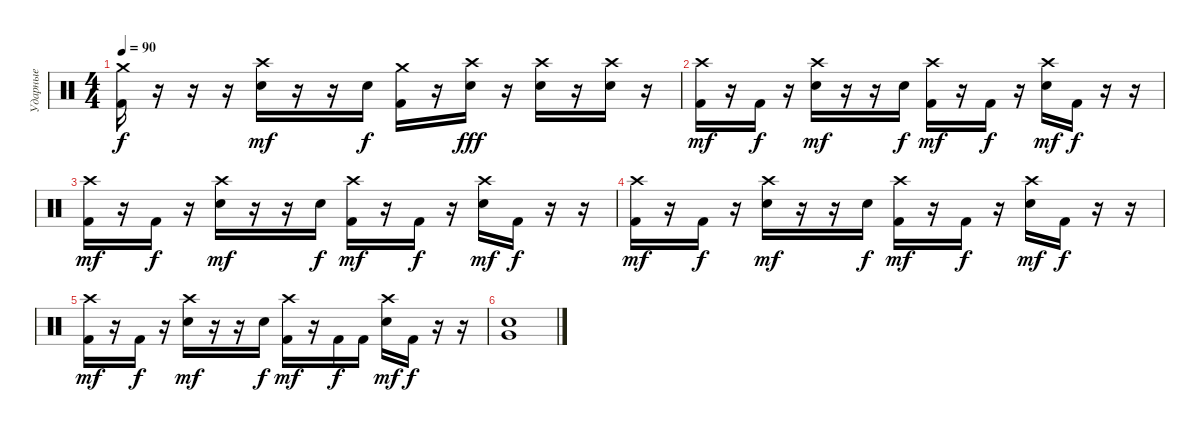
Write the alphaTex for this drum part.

\track ("Ударные" "Ударные") {instrument percussion}
\staff {score}
\articulation defaults
\ts (4 4)
\tempo 90
\clef neutral
\ks c
("Crash medium (hit)" "Kick (hit) 2").16{dy f} r.16 r.16 r.16 ("Crash high (hit)" "Electric Snare (hit)").16{dy mf} r.16 r.16 "Electric Snare (hit)".16{dy f} ("Crash medium (hit)" "Kick (hit) 2").16 r.16 ("Crash high (hit)" "Electric Snare (hit)").16{dy fff} r.16 ("Crash high (hit)" "Electric Snare (hit)").16 r.16 ("Crash high (hit)" "Electric Snare (hit)").16 r.16 |
("Crash high (hit)" "Kick (hit) 2").16{dy mf} r.16 "Kick (hit) 2".16{dy f} r.16 ("Crash high (hit)" "Electric Snare (hit)").16{dy mf} r.16 r.16 "Electric Snare (hit)".16{dy f} ("Crash high (hit)" "Kick (hit) 2").16{dy mf} r.16 "Kick (hit) 2".16{dy f} r.16 ("Crash high (hit)" "Electric Snare (hit)").16{dy mf} "Kick (hit) 2".16{dy f} r.16 r.16 |
("Crash high (hit)" "Kick (hit) 2").16{dy mf} r.16 "Kick (hit) 2".16{dy f} r.16 ("Crash high (hit)" "Electric Snare (hit)").16{dy mf} r.16 r.16 "Electric Snare (hit)".16{dy f} ("Crash high (hit)" "Kick (hit) 2").16{dy mf} r.16 "Kick (hit) 2".16{dy f} r.16 ("Crash high (hit)" "Electric Snare (hit)").16{dy mf} "Kick (hit) 2".16{dy f} r.16 r.16 |
("Crash high (hit)" "Kick (hit) 2").16{dy mf} r.16 "Kick (hit) 2".16{dy f} r.16 ("Crash high (hit)" "Electric Snare (hit)").16{dy mf} r.16 r.16 "Electric Snare (hit)".16{dy f} ("Crash high (hit)" "Kick (hit) 2").16{dy mf} r.16 "Kick (hit) 2".16{dy f} r.16 ("Crash high (hit)" "Electric Snare (hit)").16{dy mf} "Kick (hit) 2".16{dy f} r.16 r.16 |
("Crash high (hit)" "Kick (hit) 2").16{dy mf} r.16 "Kick (hit) 2".16{dy f} r.16 ("Crash high (hit)" "Electric Snare (hit)").16{dy mf} r.16 r.16 "Electric Snare (hit)".16{dy f} ("Crash high (hit)" "Kick (hit) 2").16{dy mf} r.16 "Kick (hit) 2".16{dy f} "Kick (hit) 2".16 ("Crash high (hit)" "Electric Snare (hit)").16{dy mf} "Kick (hit) 2".16{dy f} r.16 r.16 |
("Very Low Tom (hit)" "Electric Snare (hit)").1
